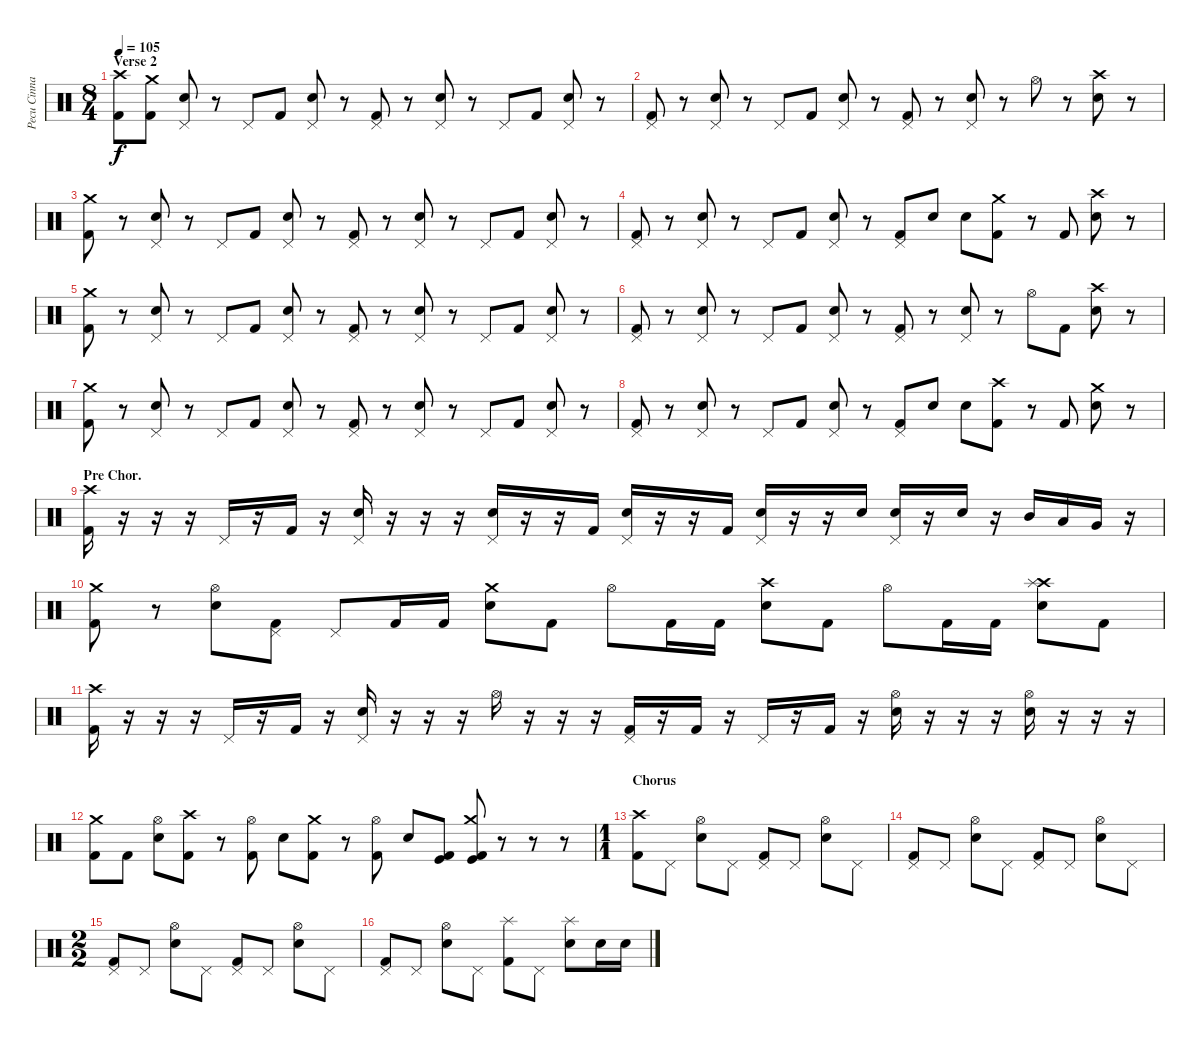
\track ("Pecu Cinnari" "Pecu Cinna") {instrument percussion}
\staff {score}
\articulation defaults
\ts (8 4)
\section ("" "Verse 2")
\tempo 105
\clef neutral
\ks c
("Crash high (hit)" "Kick (hit) 2").8{dy f} ("Crash medium (hit)" "Kick (hit) 2").8 ("Pedal Hi-Hat (hit)" "Electric Snare (hit)").8 r.8 "Pedal Hi-Hat (hit)".8 "Kick (hit) 2".8 ("Pedal Hi-Hat (hit)" "Electric Snare (hit)").8 r.8 ("Pedal Hi-Hat (hit)" "Kick (hit) 2").8 r.8 ("Pedal Hi-Hat (hit)" "Electric Snare (hit)").8 r.8 "Pedal Hi-Hat (hit)".8 "Kick (hit) 2".8 ("Pedal Hi-Hat (hit)" "Electric Snare (hit)").8 r.8 |
("Pedal Hi-Hat (hit)" "Kick (hit) 2").8 r.8 ("Pedal Hi-Hat (hit)" "Electric Snare (hit)").8 r.8 "Pedal Hi-Hat (hit)".8 "Kick (hit) 2".8 ("Pedal Hi-Hat (hit)" "Electric Snare (hit)").8 r.8 ("Pedal Hi-Hat (hit)" "Kick (hit) 2").8 r.8 ("Pedal Hi-Hat (hit)" "Electric Snare (hit)").8 r.8 "Hi-Hat (open)".8 r.8 ("Crash high (hit)" "Electric Snare (hit)").8 r.8 |
("Crash medium (hit)" "Kick (hit) 2").8 r.8 ("Pedal Hi-Hat (hit)" "Electric Snare (hit)").8 r.8 "Pedal Hi-Hat (hit)".8 "Kick (hit) 2".8 ("Pedal Hi-Hat (hit)" "Electric Snare (hit)").8 r.8 ("Pedal Hi-Hat (hit)" "Kick (hit) 2").8 r.8 ("Pedal Hi-Hat (hit)" "Electric Snare (hit)").8 r.8 "Pedal Hi-Hat (hit)".8 "Kick (hit) 2".8 ("Pedal Hi-Hat (hit)" "Electric Snare (hit)").8 r.8 |
("Pedal Hi-Hat (hit)" "Kick (hit) 2").8 r.8 ("Pedal Hi-Hat (hit)" "Electric Snare (hit)").8 r.8 "Pedal Hi-Hat (hit)".8 "Kick (hit) 2".8 ("Pedal Hi-Hat (hit)" "Electric Snare (hit)").8 r.8 ("Pedal Hi-Hat (hit)" "Kick (hit) 2").8 "Electric Snare (hit)".8 "Electric Snare (hit)".8 ("Crash medium (hit)" "Kick (hit) 2").8 r.8 "Kick (hit) 2".8 ("Crash high (hit)" "Electric Snare (hit)").8 r.8 |
("Crash medium (hit)" "Kick (hit) 2").8 r.8 ("Pedal Hi-Hat (hit)" "Electric Snare (hit)").8 r.8 "Pedal Hi-Hat (hit)".8 "Kick (hit) 2".8 ("Pedal Hi-Hat (hit)" "Electric Snare (hit)").8 r.8 ("Pedal Hi-Hat (hit)" "Kick (hit) 2").8 r.8 ("Pedal Hi-Hat (hit)" "Electric Snare (hit)").8 r.8 "Pedal Hi-Hat (hit)".8 "Kick (hit) 2".8 ("Pedal Hi-Hat (hit)" "Electric Snare (hit)").8 r.8 |
("Pedal Hi-Hat (hit)" "Kick (hit) 2").8 r.8 ("Pedal Hi-Hat (hit)" "Electric Snare (hit)").8 r.8 "Pedal Hi-Hat (hit)".8 "Kick (hit) 2".8 ("Pedal Hi-Hat (hit)" "Electric Snare (hit)").8 r.8 ("Pedal Hi-Hat (hit)" "Kick (hit) 2").8 r.8 ("Pedal Hi-Hat (hit)" "Electric Snare (hit)").8 r.8 "Hi-Hat (open)".8 "Kick (hit) 2".8 ("Crash high (hit)" "Electric Snare (hit)").8 r.8 |
("Crash medium (hit)" "Kick (hit) 2").8 r.8 ("Pedal Hi-Hat (hit)" "Electric Snare (hit)").8 r.8 "Pedal Hi-Hat (hit)".8 "Kick (hit) 2".8 ("Pedal Hi-Hat (hit)" "Electric Snare (hit)").8 r.8 ("Pedal Hi-Hat (hit)" "Kick (hit) 2").8 r.8 ("Pedal Hi-Hat (hit)" "Electric Snare (hit)").8 r.8 "Pedal Hi-Hat (hit)".8 "Kick (hit) 2".8 ("Pedal Hi-Hat (hit)" "Electric Snare (hit)").8 r.8 |
("Pedal Hi-Hat (hit)" "Kick (hit) 2").8 r.8 ("Pedal Hi-Hat (hit)" "Electric Snare (hit)").8 r.8 "Pedal Hi-Hat (hit)".8 "Kick (hit) 2".8 ("Pedal Hi-Hat (hit)" "Electric Snare (hit)").8 r.8 ("Pedal Hi-Hat (hit)" "Kick (hit) 2").8 "Electric Snare (hit)".8 "Electric Snare (hit)".8 ("Crash high (hit)" "Kick (hit) 2").8 r.8 "Kick (hit) 2".8 ("Crash medium (hit)" "Electric Snare (hit)").8 r.8 |
\section ("" "Pre Chor.")
("Crash high (hit)" "Kick (hit) 2").16 r.16 r.16 r.16 "Pedal Hi-Hat (hit)".16 r.16 "Kick (hit) 2".16 r.16 ("Pedal Hi-Hat (hit)" "Electric Snare (hit)").16 r.16 r.16 r.16 ("Pedal Hi-Hat (hit)" "Electric Snare (hit)").16 r.16 r.16 "Kick (hit) 2".16 ("Pedal Hi-Hat (hit)" "Electric Snare (hit)").16 r.16 r.16 "Kick (hit) 2".16 ("Pedal Hi-Hat (hit)" "Electric Snare (hit)").16 r.16 r.16 "Electric Snare (hit)".16 ("Pedal Hi-Hat (hit)" "Electric Snare (hit)").16 r.16 "Electric Snare (hit)".16 r.16 "Mid Tom (hit)".16 "Low Tom (hit)".16 "Very Low Tom (hit)".16 r.16 |
("Crash medium (hit)" "Kick (hit) 2").8 r.8 ("Hi-Hat (open)" "Electric Snare (hit)").8 ("Pedal Hi-Hat (hit)" "Kick (hit) 2").8 "Pedal Hi-Hat (hit)".8 "Kick (hit) 2".16 "Kick (hit) 2".16 ("Crash medium (hit)" "Electric Snare (hit)").8 "Kick (hit) 2".8 "Hi-Hat (open)".8 "Kick (hit) 2".16 "Kick (hit) 2".16 ("Crash high (hit)" "Electric Snare (hit)").8 "Kick (hit) 2".8 "Hi-Hat (open)".8 "Kick (hit) 2".16 "Kick (hit) 2".16 ("Crash high (hit)" "Splash (hit)" "Electric Snare (hit)").8 "Kick (hit) 2".8 |
("Crash high (hit)" "Kick (hit) 2").16 r.16 r.16 r.16 "Pedal Hi-Hat (hit)".16 r.16 "Kick (hit) 2".16 r.16 ("Pedal Hi-Hat (hit)" "Electric Snare (hit)").16 r.16 r.16 r.16 "Hi-Hat (open)".16 r.16 r.16 r.16 ("Pedal Hi-Hat (hit)" "Kick (hit) 2").16 r.16 "Kick (hit) 2".16 r.16 "Pedal Hi-Hat (hit)".16 r.16 "Kick (hit) 2".16 r.16 ("Hi-Hat (open)" "Electric Snare (hit)").16 r.16 r.16 r.16 ("Hi-Hat (open)" "Electric Snare (hit)").16 r.16 r.16 r.16 |
("Crash medium (hit)" "Kick (hit) 2").8 "Kick (hit) 2".8 ("Hi-Hat (open)" "Electric Snare (hit)").8 ("Crash high (hit)" "Kick (hit) 2").8 r.8 ("Hi-Hat (open)" "Kick (hit) 2").8 "Electric Snare (hit)".8 ("Crash medium (hit)" "Kick (hit) 2").8 r.8 ("Hi-Hat (open)" "Kick (hit) 2").8 "Electric Snare (hit)".8 ("Kick (hit)" "Kick (hit) 2").8 ("Crash medium (hit)" "Kick (hit)" "Kick (hit) 2").8 r.8 r.8 r.8 |
\ts (1 1)
\section ("" "Chorus")
("Crash high (hit)" "Kick (hit) 2").8 "Pedal Hi-Hat (hit)".8 ("Hi-Hat (open)" "Electric Snare (hit)").8 "Pedal Hi-Hat (hit)".8 ("Pedal Hi-Hat (hit)" "Kick (hit) 2").8 "Pedal Hi-Hat (hit)".8 ("Hi-Hat (open)" "Electric Snare (hit)").8 "Pedal Hi-Hat (hit)".8 |
("Pedal Hi-Hat (hit)" "Kick (hit) 2").8 "Pedal Hi-Hat (hit)".8 ("Hi-Hat (open)" "Electric Snare (hit)").8 "Pedal Hi-Hat (hit)".8 ("Pedal Hi-Hat (hit)" "Kick (hit) 2").8 "Pedal Hi-Hat (hit)".8 ("Hi-Hat (open)" "Electric Snare (hit)").8 "Pedal Hi-Hat (hit)".8 |
\ts (2 2)
("Pedal Hi-Hat (hit)" "Kick (hit) 2").8 "Pedal Hi-Hat (hit)".8 ("Hi-Hat (open)" "Electric Snare (hit)").8 "Pedal Hi-Hat (hit)".8 ("Pedal Hi-Hat (hit)" "Kick (hit) 2").8 "Pedal Hi-Hat (hit)".8 ("Hi-Hat (open)" "Electric Snare (hit)").8 "Pedal Hi-Hat (hit)".8 |
("Pedal Hi-Hat (hit)" "Kick (hit) 2").8 "Pedal Hi-Hat (hit)".8 ("Hi-Hat (open)" "Electric Snare (hit)").8 "Pedal Hi-Hat (hit)".8 ("Splash (hit)" "Kick (hit) 2").8 "Pedal Hi-Hat (hit)".8 ("Splash (hit)" "Electric Snare (hit)").8 "Electric Snare (hit)".16 "Electric Snare (hit)".16
